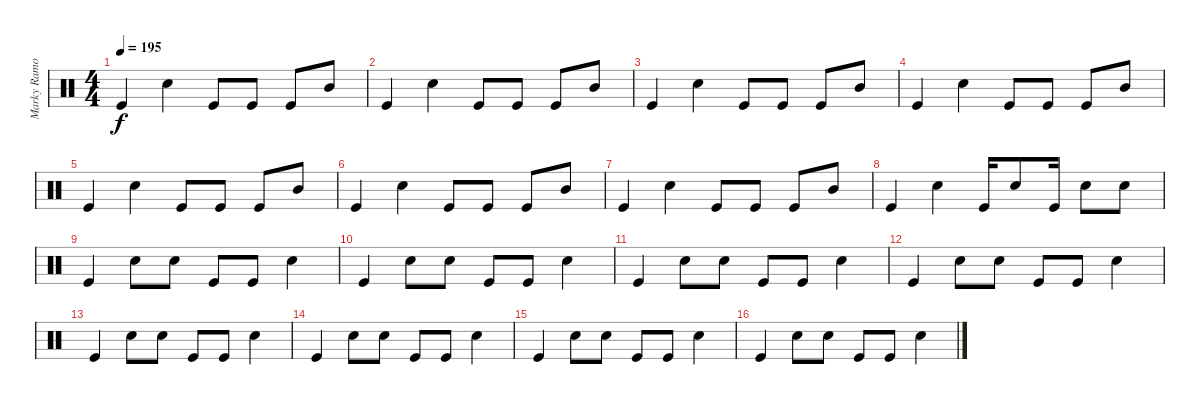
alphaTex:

\track ("Marky Ramone" "Marky Ramo") {instrument percussion}
\staff {score}
\articulation defaults
\ts (4 4)
\tempo 195
\clef neutral
\ks c "Kick (hit)".4{dy f} "Electric Snare (hit)".4 "Kick (hit)".8 "Kick (hit)".8 "Kick (hit)".8 "Mid Tom (hit)".8
|
"Kick (hit)".4 "Electric Snare (hit)".4 "Kick (hit)".8 "Kick (hit)".8 "Kick (hit)".8 "Mid Tom (hit)".8 |
"Kick (hit)".4 "Electric Snare (hit)".4 "Kick (hit)".8 "Kick (hit)".8 "Kick (hit)".8 "Mid Tom (hit)".8 |
"Kick (hit)".4 "Electric Snare (hit)".4 "Kick (hit)".8 "Kick (hit)".8 "Kick (hit)".8 "Mid Tom (hit)".8 |
"Kick (hit)".4 "Electric Snare (hit)".4 "Kick (hit)".8 "Kick (hit)".8 "Kick (hit)".8 "Mid Tom (hit)".8 |
"Kick (hit)".4 "Electric Snare (hit)".4 "Kick (hit)".8 "Kick (hit)".8 "Kick (hit)".8 "Mid Tom (hit)".8 |
"Kick (hit)".4 "Electric Snare (hit)".4 "Kick (hit)".8 "Kick (hit)".8 "Kick (hit)".8 "Mid Tom (hit)".8 |
"Kick (hit)".4 "Electric Snare (hit)".4 "Kick (hit)".16 "Electric Snare (hit)".8 "Kick (hit)".16 "Electric Snare (hit)".8 "Electric Snare (hit)".8 |
"Kick (hit)".4 "Electric Snare (hit)".8 "Electric Snare (hit)".8 "Kick (hit)".8 "Kick (hit)".8 "Electric Snare (hit)".4 |
"Kick (hit)".4 "Electric Snare (hit)".8 "Electric Snare (hit)".8 "Kick (hit)".8 "Kick (hit)".8 "Electric Snare (hit)".4 |
"Kick (hit)".4 "Electric Snare (hit)".8 "Electric Snare (hit)".8 "Kick (hit)".8 "Kick (hit)".8 "Electric Snare (hit)".4 |
"Kick (hit)".4 "Electric Snare (hit)".8 "Electric Snare (hit)".8 "Kick (hit)".8 "Kick (hit)".8 "Electric Snare (hit)".4 |
"Kick (hit)".4 "Electric Snare (hit)".8 "Electric Snare (hit)".8 "Kick (hit)".8 "Kick (hit)".8 "Electric Snare (hit)".4 |
"Kick (hit)".4 "Electric Snare (hit)".8 "Electric Snare (hit)".8 "Kick (hit)".8 "Kick (hit)".8 "Electric Snare (hit)".4 |
"Kick (hit)".4 "Electric Snare (hit)".8 "Electric Snare (hit)".8 "Kick (hit)".8 "Kick (hit)".8 "Electric Snare (hit)".4 |
"Kick (hit)".4 "Electric Snare (hit)".8 "Electric Snare (hit)".8 "Kick (hit)".8 "Kick (hit)".8 "Electric Snare (hit)".4
